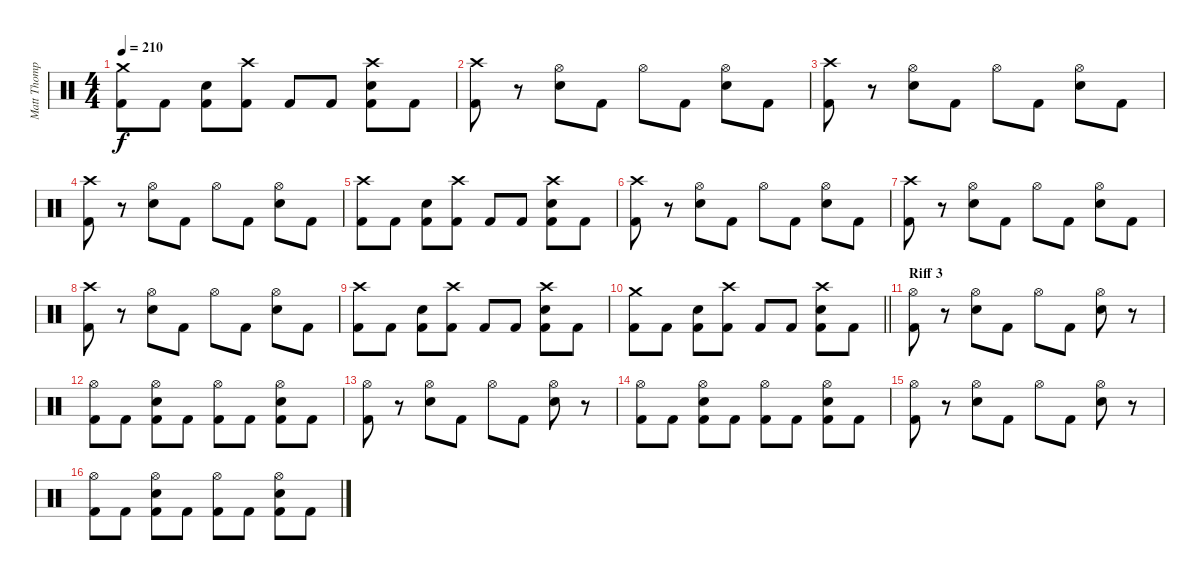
\track ("Matt Thompson" "Matt Thomp") {instrument percussion}
\staff {score}
\articulation defaults
\ts (4 4)
\tempo 210
\clef neutral
\ks c
("Crash medium (hit)" "Kick (hit) 2").8{dy f} "Kick (hit) 2".8 ("Electric Snare (hit)" "Kick (hit) 2").8 ("Crash high (hit)" "Kick (hit) 2").8 "Kick (hit) 2".8 "Kick (hit) 2".8 ("Crash high (hit)" "Electric Snare (hit)" "Kick (hit) 2").8 "Kick (hit) 2".8 |
("Crash high (hit)" "Kick (hit) 2").8 r.8 ("Hi-Hat (open)" "Electric Snare (hit)").8 "Kick (hit) 2".8 "Hi-Hat (open)".8 "Kick (hit) 2".8 ("Hi-Hat (open)" "Electric Snare (hit)").8 "Kick (hit) 2".8 |
("Crash high (hit)" "Kick (hit) 2").8 r.8 ("Hi-Hat (open)" "Electric Snare (hit)").8 "Kick (hit) 2".8 "Hi-Hat (open)".8 "Kick (hit) 2".8 ("Hi-Hat (open)" "Electric Snare (hit)").8 "Kick (hit) 2".8 |
("Crash high (hit)" "Kick (hit) 2").8 r.8 ("Hi-Hat (open)" "Electric Snare (hit)").8 "Kick (hit) 2".8 "Hi-Hat (open)".8 "Kick (hit) 2".8 ("Hi-Hat (open)" "Electric Snare (hit)").8 "Kick (hit) 2".8 |
("Crash high (hit)" "Kick (hit) 2").8 "Kick (hit) 2".8 ("Electric Snare (hit)" "Kick (hit) 2").8 ("Crash high (hit)" "Kick (hit) 2").8 "Kick (hit) 2".8 "Kick (hit) 2".8 ("Crash high (hit)" "Electric Snare (hit)" "Kick (hit) 2").8 "Kick (hit) 2".8 |
("Crash high (hit)" "Kick (hit) 2").8 r.8 ("Hi-Hat (open)" "Electric Snare (hit)").8 "Kick (hit) 2".8 "Hi-Hat (open)".8 "Kick (hit) 2".8 ("Hi-Hat (open)" "Electric Snare (hit)").8 "Kick (hit) 2".8 |
("Crash high (hit)" "Kick (hit) 2").8 r.8 ("Hi-Hat (open)" "Electric Snare (hit)").8 "Kick (hit) 2".8 "Hi-Hat (open)".8 "Kick (hit) 2".8 ("Hi-Hat (open)" "Electric Snare (hit)").8 "Kick (hit) 2".8 |
("Crash high (hit)" "Kick (hit) 2").8 r.8 ("Hi-Hat (open)" "Electric Snare (hit)").8 "Kick (hit) 2".8 "Hi-Hat (open)".8 "Kick (hit) 2".8 ("Hi-Hat (open)" "Electric Snare (hit)").8 "Kick (hit) 2".8 |
("Crash high (hit)" "Kick (hit) 2").8 "Kick (hit) 2".8 ("Electric Snare (hit)" "Kick (hit) 2").8 ("Crash high (hit)" "Kick (hit) 2").8 "Kick (hit) 2".8 "Kick (hit) 2".8 ("Crash high (hit)" "Electric Snare (hit)" "Kick (hit) 2").8 "Kick (hit) 2".8 |
\barLineRight lightlight
("Crash medium (hit)" "Kick (hit) 2").8 "Kick (hit) 2".8 ("Electric Snare (hit)" "Kick (hit) 2").8 ("Crash high (hit)" "Kick (hit) 2").8 "Kick (hit) 2".8 "Kick (hit) 2".8 ("Crash high (hit)" "Electric Snare (hit)" "Kick (hit) 2").8 "Kick (hit) 2".8 |
\section ("" "Riff 3")
("Hi-Hat (open)" "Kick (hit) 2").8 r.8 ("Hi-Hat (open)" "Electric Snare (hit)").8 "Kick (hit) 2".8 "Hi-Hat (open)".8 "Kick (hit) 2".8 ("Hi-Hat (open)" "Electric Snare (hit)").8 r.8 |
("Hi-Hat (open)" "Kick (hit) 2").8 "Kick (hit) 2".8 ("Hi-Hat (open)" "Electric Snare (hit)" "Kick (hit) 2").8 "Kick (hit) 2".8 ("Hi-Hat (open)" "Kick (hit) 2").8 "Kick (hit) 2".8 ("Hi-Hat (open)" "Electric Snare (hit)" "Kick (hit) 2").8 "Kick (hit) 2".8 |
("Hi-Hat (open)" "Kick (hit) 2").8 r.8 ("Hi-Hat (open)" "Electric Snare (hit)").8 "Kick (hit) 2".8 "Hi-Hat (open)".8 "Kick (hit) 2".8 ("Hi-Hat (open)" "Electric Snare (hit)").8 r.8 |
("Hi-Hat (open)" "Kick (hit) 2").8 "Kick (hit) 2".8 ("Hi-Hat (open)" "Electric Snare (hit)" "Kick (hit) 2").8 "Kick (hit) 2".8 ("Hi-Hat (open)" "Kick (hit) 2").8 "Kick (hit) 2".8 ("Hi-Hat (open)" "Electric Snare (hit)" "Kick (hit) 2").8 "Kick (hit) 2".8 |
("Hi-Hat (open)" "Kick (hit) 2").8 r.8 ("Hi-Hat (open)" "Electric Snare (hit)").8 "Kick (hit) 2".8 "Hi-Hat (open)".8 "Kick (hit) 2".8 ("Hi-Hat (open)" "Electric Snare (hit)").8 r.8 |
("Hi-Hat (open)" "Kick (hit) 2").8 "Kick (hit) 2".8 ("Hi-Hat (open)" "Electric Snare (hit)" "Kick (hit) 2").8 "Kick (hit) 2".8 ("Hi-Hat (open)" "Kick (hit) 2").8 "Kick (hit) 2".8 ("Hi-Hat (open)" "Electric Snare (hit)" "Kick (hit) 2").8 "Kick (hit) 2".8
